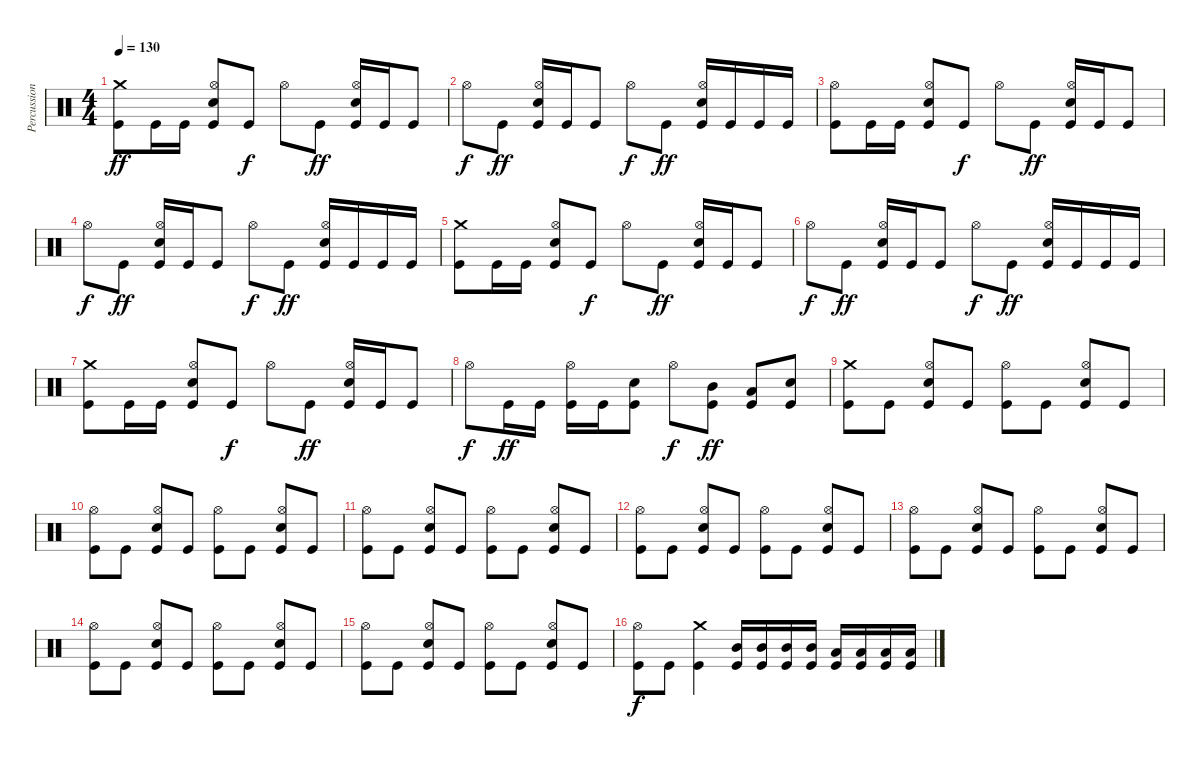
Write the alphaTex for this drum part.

\track ("Percussion" "Percussion") {instrument percussion}
\staff {score}
\articulation defaults
\ts (4 4)
\tempo 130
\clef neutral
\ks c
("Crash medium (hit)" "Kick (hit)").8{dy ff} "Kick (hit)".16 "Kick (hit)".16 ("Hi-Hat (open)" "Snare (hit) 2" "Kick (hit)").8 "Kick (hit)".8{dy f} "Hi-Hat (open)".8 "Kick (hit)".8{dy ff} ("Hi-Hat (open)" "Snare (hit) 2" "Kick (hit)").16 "Kick (hit)".16 "Kick (hit)".8 |
"Hi-Hat (open)".8{dy f} "Kick (hit)".8{dy ff} ("Hi-Hat (open)" "Snare (hit) 2" "Kick (hit)").16 "Kick (hit)".16 "Kick (hit)".8 "Hi-Hat (open)".8{dy f} "Kick (hit)".8{dy ff} ("Hi-Hat (open)" "Snare (hit) 2" "Kick (hit)").16 "Kick (hit)".16 "Kick (hit)".16 "Kick (hit)".16 |
("Hi-Hat (open)" "Kick (hit)").8 "Kick (hit)".16 "Kick (hit)".16 ("Hi-Hat (open)" "Snare (hit) 2" "Kick (hit)").8 "Kick (hit)".8{dy f} "Hi-Hat (open)".8 "Kick (hit)".8{dy ff} ("Hi-Hat (open)" "Snare (hit) 2" "Kick (hit)").16 "Kick (hit)".16 "Kick (hit)".8 |
"Hi-Hat (open)".8{dy f} "Kick (hit)".8{dy ff} ("Hi-Hat (open)" "Snare (hit) 2" "Kick (hit)").16 "Kick (hit)".16 "Kick (hit)".8 "Hi-Hat (open)".8{dy f} "Kick (hit)".8{dy ff} ("Hi-Hat (open)" "Snare (hit) 2" "Kick (hit)").16 "Kick (hit)".16 "Kick (hit)".16 "Kick (hit)".16 |
("Crash medium (hit)" "Kick (hit)").8 "Kick (hit)".16 "Kick (hit)".16 ("Hi-Hat (open)" "Snare (hit) 2" "Kick (hit)").8 "Kick (hit)".8{dy f} "Hi-Hat (open)".8 "Kick (hit)".8{dy ff} ("Hi-Hat (open)" "Snare (hit) 2" "Kick (hit)").16 "Kick (hit)".16 "Kick (hit)".8 |
"Hi-Hat (open)".8{dy f} "Kick (hit)".8{dy ff} ("Hi-Hat (open)" "Snare (hit) 2" "Kick (hit)").16 "Kick (hit)".16 "Kick (hit)".8 "Hi-Hat (open)".8{dy f} "Kick (hit)".8{dy ff} ("Hi-Hat (open)" "Snare (hit) 2" "Kick (hit)").16 "Kick (hit)".16 "Kick (hit)".16 "Kick (hit)".16 |
("Crash medium (hit)" "Kick (hit)").8 "Kick (hit)".16 "Kick (hit)".16 ("Hi-Hat (open)" "Snare (hit) 2" "Kick (hit)").8 "Kick (hit)".8{dy f} "Hi-Hat (open)".8 "Kick (hit)".8{dy ff} ("Hi-Hat (open)" "Snare (hit) 2" "Kick (hit)").16 "Kick (hit)".16 "Kick (hit)".8 |
"Hi-Hat (open)".8{dy f} "Kick (hit)".16{dy ff} "Kick (hit)".16 ("Hi-Hat (open)" "Kick (hit)").16 "Kick (hit)".16 ("Snare (hit) 2" "Kick (hit)").8 "Hi-Hat (open)".8{dy f} ("Mid Tom (hit)"{tr (47 16)} "Kick (hit)").8{dy ff} ("Low Tom (hit)"{tr (45 16)} "Kick (hit)").8 ("Snare (hit) 2" "Kick (hit)").8 |
("Crash medium (hit)" "Kick (hit)").8 "Kick (hit)".8 ("Hi-Hat (open)" "Snare (hit) 2" "Kick (hit)").8 "Kick (hit)".8 ("Hi-Hat (open)" "Kick (hit)").8 "Kick (hit)".8 ("Hi-Hat (open)" "Snare (hit) 2" "Kick (hit)").8 "Kick (hit)".8 |
("Hi-Hat (open)" "Kick (hit)").8 "Kick (hit)".8 ("Hi-Hat (open)" "Snare (hit) 2" "Kick (hit)").8 "Kick (hit)".8 ("Hi-Hat (open)" "Kick (hit)").8 "Kick (hit)".8 ("Hi-Hat (open)" "Snare (hit) 2" "Kick (hit)").8 "Kick (hit)".8 |
("Hi-Hat (open)" "Kick (hit)").8 "Kick (hit)".8 ("Hi-Hat (open)" "Snare (hit) 2" "Kick (hit)").8 "Kick (hit)".8 ("Hi-Hat (open)" "Kick (hit)").8 "Kick (hit)".8 ("Hi-Hat (open)" "Snare (hit) 2" "Kick (hit)").8 "Kick (hit)".8 |
("Hi-Hat (open)" "Kick (hit)").8 "Kick (hit)".8 ("Hi-Hat (open)" "Snare (hit) 2" "Kick (hit)").8 "Kick (hit)".8 ("Hi-Hat (open)" "Kick (hit)").8 "Kick (hit)".8 ("Hi-Hat (open)" "Snare (hit) 2" "Kick (hit)").8 "Kick (hit)".8 |
("Hi-Hat (open)" "Kick (hit)").8 "Kick (hit)".8 ("Hi-Hat (open)" "Snare (hit) 2" "Kick (hit)").8 "Kick (hit)".8 ("Hi-Hat (open)" "Kick (hit)").8 "Kick (hit)".8 ("Hi-Hat (open)" "Snare (hit) 2" "Kick (hit)").8 "Kick (hit)".8 |
("Hi-Hat (open)" "Kick (hit)").8 "Kick (hit)".8 ("Hi-Hat (open)" "Snare (hit) 2" "Kick (hit)").8 "Kick (hit)".8 ("Hi-Hat (open)" "Kick (hit)").8 "Kick (hit)".8 ("Hi-Hat (open)" "Snare (hit) 2" "Kick (hit)").8 "Kick (hit)".8 |
("Hi-Hat (open)" "Kick (hit)").8 "Kick (hit)".8 ("Hi-Hat (open)" "Snare (hit) 2" "Kick (hit)").8 "Kick (hit)".8 ("Hi-Hat (open)" "Kick (hit)").8 "Kick (hit)".8 ("Hi-Hat (open)" "Snare (hit) 2" "Kick (hit)").8 "Kick (hit)".8 |
("Hi-Hat (open)" "Kick (hit)").8{dy f} "Kick (hit)".8 ("Crash medium (hit)" "Kick (hit)").4 ("Mid Tom (hit)" "Kick (hit)").16 ("Mid Tom (hit)" "Kick (hit)").16 ("Mid Tom (hit)" "Kick (hit)").16 ("Mid Tom (hit)" "Kick (hit)").16 ("Low Tom (hit)" "Kick (hit)").16 ("Low Tom (hit)" "Kick (hit)").16 ("Low Tom (hit)" "Kick (hit)").16 ("Low Tom (hit)" "Kick (hit)").16
